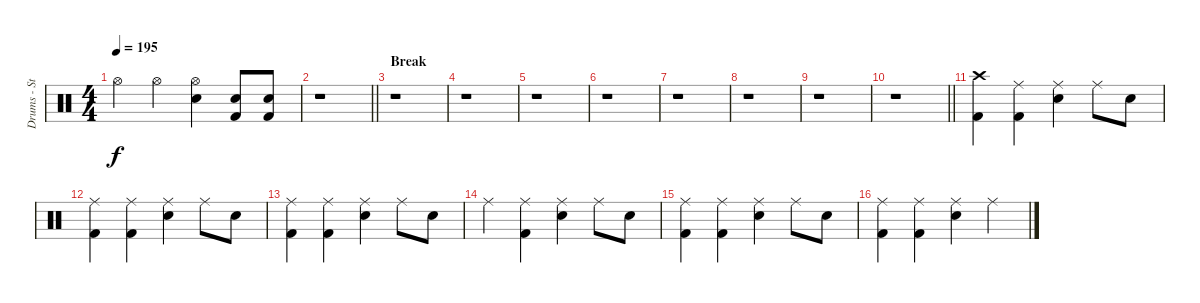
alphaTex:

\track ("Drums - Steve" "Drums - St") {instrument percussion}
\staff {score}
\articulation defaults
\ts (4 4)
\tempo 195
\clef neutral
\ks c "Hi-Hat (open)".4{dy f} "Hi-Hat (open)".4
("Hi-Hat (open)" "Snare (hit) 2").4 ("Snare (hit) 2" "Kick (hit) 2").8 ("Snare (hit) 2" "Kick (hit) 2").8 |
\barLineRight lightlight
r.1 |
\section ("" "Break")
r.1 |
r.1 |
r.1 |
r.1 |
r.1 |
r.1 |
r.1 |
\barLineRight lightlight
r.1 |
("Crash high (hit)" "Kick (hit) 2").4 ("Ride (middle)" "Kick (hit) 2").4 ("Ride (middle)" "Snare (hit) 2").4 "Ride (middle)".8 "Snare (hit) 2".8 |
("Ride (middle)" "Kick (hit) 2").4 ("Ride (middle)" "Kick (hit) 2").4 ("Ride (middle)" "Snare (hit) 2").4 "Ride (middle)".8 "Snare (hit) 2".8 |
("Ride (middle)" "Kick (hit) 2").4 ("Ride (middle)" "Kick (hit) 2").4 ("Ride (middle)" "Snare (hit) 2").4 "Ride (middle)".8 "Snare (hit) 2".8 |
"Ride (middle)".4 ("Ride (middle)" "Kick (hit) 2").4 ("Ride (middle)" "Snare (hit) 2").4 "Ride (middle)".8 "Snare (hit) 2".8 |
("Ride (middle)" "Kick (hit) 2").4 ("Ride (middle)" "Kick (hit) 2").4 ("Ride (middle)" "Snare (hit) 2").4 "Ride (middle)".8 "Snare (hit) 2".8 |
("Ride (middle)" "Kick (hit) 2").4 ("Ride (middle)" "Kick (hit) 2").4 ("Ride (middle)" "Snare (hit) 2").4 "Ride (middle)".4
